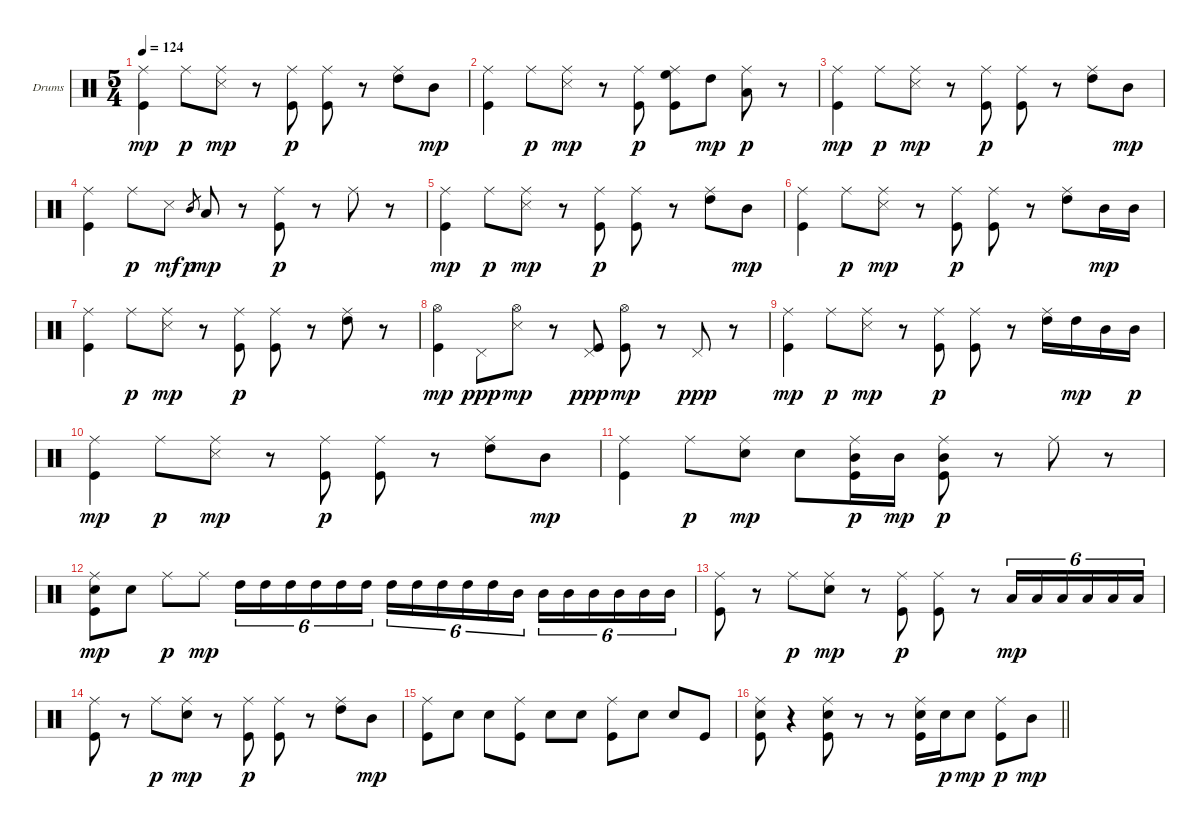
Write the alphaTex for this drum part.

\bracketExtendMode groupsimilarinstruments
\firstSystemTrackNameOrientation horizontal
\otherSystemsTrackNameOrientation horizontal
\track ("Drumkit" "Drums") {instrument percussion}
\staff {score}
\articulation defaults
\ts (5 4)
\tempo 124
\clef neutral
\ks aminor
("Ride (middle)" "Kick (hit)").4{dy mp} "Ride (middle)".8{dy p} ("Ride (middle)" "Snare (side stick) 3").8{dy mp} r.8 ("Ride (middle)" "Kick (hit)").8{dy p} ("Ride (middle)" "Kick (hit)").8 r.8 ("Ride (middle)" "High Tom (hit)").8 "Mid Tom (hit)".8{dy mp} |
("Ride (middle)" "Kick (hit)").4 "Ride (middle)".8{dy p} ("Ride (middle)" "Snare (side stick) 3").8{dy mp} r.8 ("Ride (middle)" "Kick (hit)").8{dy p} ("Ride (middle)" "High Floor Tom (hit)" "Kick (hit)").8 "High Tom (hit)".8{dy mp} ("Ride (middle)" "Low Tom (hit)").8{dy p} r.8 |
("Ride (middle)" "Kick (hit)").4{dy mp} "Ride (middle)".8{dy p} ("Ride (middle)" "Snare (side stick) 3").8{dy mp} r.8 ("Ride (middle)" "Kick (hit)").8{dy p} ("Ride (middle)" "Kick (hit)").8 r.8 ("Ride (middle)" "High Tom (hit)").8 "Mid Tom (hit)".8{dy mp} |
("Ride (middle)" "Kick (hit)").4 "Ride (middle)".8{dy p} "Snare (side stick) 3".8{dy mf} "Mid Tom (hit)".8{gr dy p} "Low Tom (hit)".8{dy mp} r.8 ("Ride (middle)" "Kick (hit)").8{dy p} r.8 "Ride (middle)".8 r.8 |
("Ride (middle)" "Kick (hit)").4{dy mp} "Ride (middle)".8{dy p} ("Ride (middle)" "Snare (side stick) 3").8{dy mp} r.8 ("Ride (middle)" "Kick (hit)").8{dy p} ("Ride (middle)" "Kick (hit)").8 r.8 ("Ride (middle)" "High Tom (hit)").8 "Mid Tom (hit)".8{dy mp} |
("Ride (middle)" "Kick (hit)").4 "Ride (middle)".8{dy p} ("Ride (middle)" "Snare (side stick) 3").8{dy mp} r.8 ("Ride (middle)" "Kick (hit)").8{dy p} ("Ride (middle)" "Kick (hit)").8 r.8 ("Ride (middle)" "High Tom (hit)").8 "Mid Tom (hit)".16{dy mp} "Mid Tom (hit)".16 |
("Ride (middle)" "Kick (hit)").4 "Ride (middle)".8{dy p} ("Ride (middle)" "Snare (side stick) 3").8{dy mp} r.8 ("Ride (middle)" "Kick (hit)").8{dy p} ("Ride (middle)" "Kick (hit)").8 r.8 ("Ride (middle)" "High Tom (hit)").8 r.8 |
("Hi-Hat (open)" "Kick (hit)").4{dy mp} "Pedal Hi-Hat (hit)".8{dy ppp} ("Hi-Hat (open)" "Snare (side stick) 3").8{dy mp} r.8 ("Pedal Hi-Hat (hit)" "Kick (hit)").8{dy ppp} ("Hi-Hat (open)" "Kick (hit)").8{dy mp} r.8 "Pedal Hi-Hat (hit)".8{dy ppp} r.8 |
("Ride (middle)" "Kick (hit)").4{dy mp} "Ride (middle)".8{dy p} ("Ride (middle)" "Snare (side stick) 3").8{dy mp} r.8 ("Ride (middle)" "Kick (hit)").8{dy p} ("Ride (middle)" "Kick (hit)").8 r.8 ("Ride (middle)" "High Tom (hit)").16 "High Tom (hit)".16{dy mp} "Mid Tom (hit)".16 "Mid Tom (hit)".16{dy p} |
("Ride (middle)" "Kick (hit)").4{dy mp} "Ride (middle)".8{dy p} ("Ride (middle)" "Snare (side stick) 3").8{dy mp} r.8 ("Ride (middle)" "Kick (hit)").8{dy p} ("Ride (middle)" "Kick (hit)").8 r.8 ("Ride (middle)" "High Tom (hit)").8 "Mid Tom (hit)".8{dy mp} |
("Ride (middle)" "Kick (hit)").4 "Ride (middle)".8{dy p} ("Ride (middle)" "Snare (hit) 2").8{dy mp} "Snare (hit) 2".8 ("Ride (middle)" "Mid Tom (hit)" "Kick (hit)").16{dy p} "Mid Tom (hit)".16{dy mp} ("Ride (middle)" "Mid Tom (hit)" "Kick (hit)").8{dy p} r.8 "Ride (middle)".8 r.8 |
("Ride (middle)" "Snare (hit) 2" "Kick (hit)").8{dy mp} "Snare (hit) 2".8 "Ride (middle)".8{dy p} "Ride (middle)".8{dy mp} "High Tom (hit)".16{tu (6 4)} "High Tom (hit)".16{tu (6 4)} "High Tom (hit)".16{tu (6 4)} "High Tom (hit)".16{tu (6 4)} "High Tom (hit)".16{tu (6 4)} "High Tom (hit)".16{tu (6 4)} "High Tom (hit)".16{tu (6 4)} "High Tom (hit)".16{tu (6 4)} "High Tom (hit)".16{tu (6 4)} "High Tom (hit)".16{tu (6 4)} "High Tom (hit)".16{tu (6 4)} "Mid Tom (hit)".16{tu (6 4)} "Mid Tom (hit)".16{tu (6 4)} "Mid Tom (hit)".16{tu (6 4)} "Mid Tom (hit)".16{tu (6 4)} "Mid Tom (hit)".16{tu (6 4)} "Mid Tom (hit)".16{tu (6 4)} "Mid Tom (hit)".16{tu (6 4)} |
("Ride (middle)" "Kick (hit)").8 r.8 "Ride (middle)".8{dy p} ("Ride (middle)" "Snare (hit) 2").8{dy mp} r.8 ("Ride (middle)" "Kick (hit)").8{dy p} ("Ride (middle)" "Kick (hit)").8 r.8 "Low Tom (hit)".16{tu (6 4) dy mp} "Low Tom (hit)".16{tu (6 4)} "Low Tom (hit)".16{tu (6 4)} "Low Tom (hit)".16{tu (6 4)} "Low Tom (hit)".16{tu (6 4)} "Low Tom (hit)".16{tu (6 4)} |
("Ride (middle)" "Kick (hit)").8 r.8 "Ride (middle)".8{dy p} ("Ride (middle)" "Snare (hit) 2").8{dy mp} r.8 ("Ride (middle)" "Kick (hit)").8{dy p} ("Ride (middle)" "Kick (hit)").8 r.8 ("Ride (middle)" "High Tom (hit)").8 "Mid Tom (hit)".8{dy mp} |
("Ride (middle)" "Kick (hit)").8 "Snare (hit) 2".8 "Snare (hit) 2".8 ("Ride (middle)" "Kick (hit)").8 "Snare (hit) 2".8 "Snare (hit) 2".8 ("Ride (middle)" "Kick (hit)").8 "Snare (hit) 2".8 "Snare (hit) 2".8 "Kick (hit)".8 |
\barLineRight lightlight
("Ride (middle)" "Snare (hit) 2" "Kick (hit)").8 r.4 ("Ride (middle)" "Snare (hit) 2" "Kick (hit)").8 r.8 r.8 ("Ride (middle)" "Snare (hit) 2" "Kick (hit)").16 "Snare (hit) 2".16{dy p} "Snare (hit) 2".8{dy mp} ("Ride (middle)" "Kick (hit)").8{dy p} "Mid Tom (hit)".8{dy mp}
